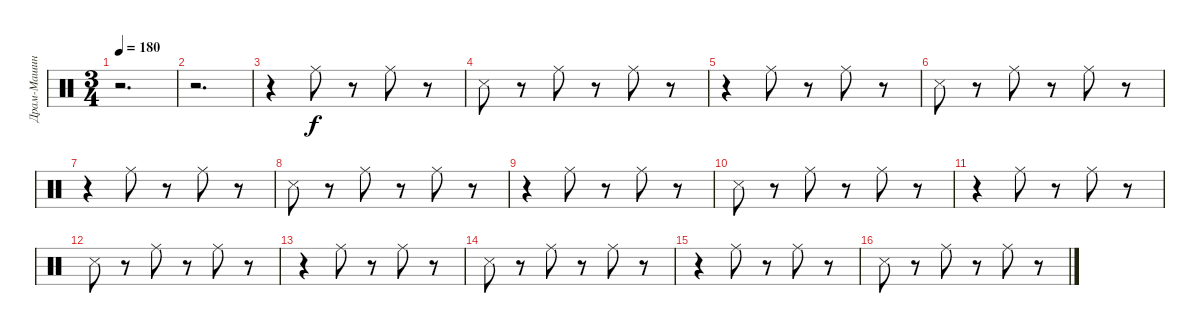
\track ("Драм-Машина" "Драм-Машин") {instrument percussion}
\staff {score}
\articulation defaults
\ts (3 4)
\tempo 180
\clef neutral
\ks c
r.2{d dy f} |
r.2{d} |
r.4 "Ride (middle)".8 r.8 "Ride (middle)".8 r.8 |
"Snare (side stick) 3".8 r.8 "Ride (middle)".8 r.8 "Ride (middle)".8 r.8 |
r.4 "Ride (middle)".8 r.8 "Ride (middle)".8 r.8 |
"Snare (side stick) 3".8 r.8 "Ride (middle)".8 r.8 "Ride (middle)".8 r.8 |
r.4 "Ride (middle)".8 r.8 "Ride (middle)".8 r.8 |
"Snare (side stick) 3".8 r.8 "Ride (middle)".8 r.8 "Ride (middle)".8 r.8 |
r.4 "Ride (middle)".8 r.8 "Ride (middle)".8 r.8 |
"Snare (side stick) 3".8 r.8 "Ride (middle)".8 r.8 "Ride (middle)".8 r.8 |
r.4 "Ride (middle)".8 r.8 "Ride (middle)".8 r.8 |
"Snare (side stick) 3".8 r.8 "Ride (middle)".8 r.8 "Ride (middle)".8 r.8 |
r.4 "Ride (middle)".8 r.8 "Ride (middle)".8 r.8 |
"Snare (side stick) 3".8 r.8 "Ride (middle)".8 r.8 "Ride (middle)".8 r.8 |
r.4 "Ride (middle)".8 r.8 "Ride (middle)".8 r.8 |
"Snare (side stick) 3".8 r.8 "Ride (middle)".8 r.8 "Ride (middle)".8 r.8
